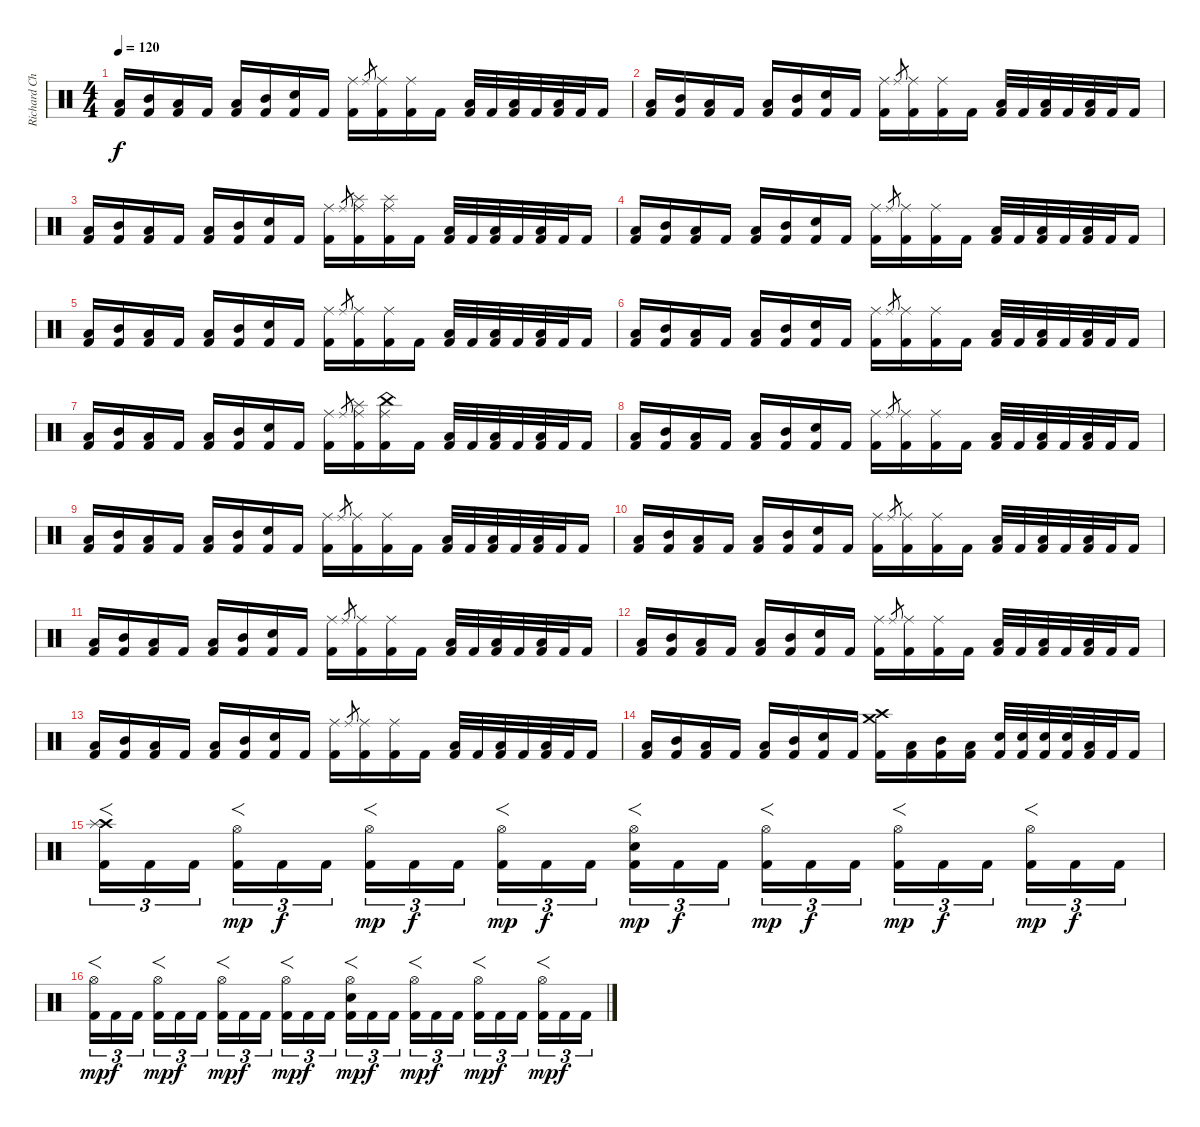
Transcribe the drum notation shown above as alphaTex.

\track ("Richard Christy" "Richard Ch") {instrument percussion}
\staff {score}
\articulation defaults
\ts (4 4)
\tempo 120
\clef neutral
\ks c
("Low Tom (hit)" "Kick (hit) 2").16{dy f} ("Mid Tom (hit)" "Kick (hit) 2").16 ("Low Tom (hit)" "Kick (hit) 2").16 "Kick (hit) 2".16 ("Low Tom (hit)" "Kick (hit) 2").16 ("Mid Tom (hit)" "Kick (hit) 2").16 ("Snare (hit) 2" "Kick (hit) 2").16 "Kick (hit) 2".16 ("Ride (middle)" "Kick (hit) 2").16 "Ride (middle)".8{gr} ("Ride (middle)" "Kick (hit) 2").16 ("Ride (middle)" "Kick (hit) 2").16 "Kick (hit) 2".16 ("Low Tom (hit)" "Kick (hit) 2").32 "Kick (hit) 2".32 ("Low Tom (hit)" "Kick (hit) 2").32 "Kick (hit) 2".32 ("Low Tom (hit)" "Kick (hit) 2").32 "Kick (hit) 2".32 "Kick (hit) 2".16 |
("Low Tom (hit)" "Kick (hit) 2").16 ("Mid Tom (hit)" "Kick (hit) 2").16 ("Low Tom (hit)" "Kick (hit) 2").16 "Kick (hit) 2".16 ("Low Tom (hit)" "Kick (hit) 2").16 ("Mid Tom (hit)" "Kick (hit) 2").16 ("Snare (hit) 2" "Kick (hit) 2").16 "Kick (hit) 2".16 ("Ride (middle)" "Kick (hit) 2").16 "Ride (middle)".8{gr} ("Ride (middle)" "Kick (hit) 2").16 ("Ride (middle)" "Kick (hit) 2").16 "Kick (hit) 2".16 ("Low Tom (hit)" "Kick (hit) 2").32 "Kick (hit) 2".32 ("Low Tom (hit)" "Kick (hit) 2").32 "Kick (hit) 2".32 ("Low Tom (hit)" "Kick (hit) 2").32 "Kick (hit) 2".32 "Kick (hit) 2".16 |
("Low Tom (hit)" "Kick (hit) 2").16 ("Mid Tom (hit)" "Kick (hit) 2").16 ("Low Tom (hit)" "Kick (hit) 2").16 "Kick (hit) 2".16 ("Low Tom (hit)" "Kick (hit) 2").16 ("Mid Tom (hit)" "Kick (hit) 2").16 ("Snare (hit) 2" "Kick (hit) 2").16 "Kick (hit) 2".16 ("Ride (middle)" "Kick (hit) 2").16 "Ride (middle)".8{gr} ("Ride (middle)" "Splash (hit)" "Kick (hit) 2").16 ("Ride (middle)" "Splash (hit)" "Kick (hit) 2").16 "Kick (hit) 2".16 ("Low Tom (hit)" "Kick (hit) 2").32 "Kick (hit) 2".32 ("Low Tom (hit)" "Kick (hit) 2").32 "Kick (hit) 2".32 ("Low Tom (hit)" "Kick (hit) 2").32 "Kick (hit) 2".32 "Kick (hit) 2".16 |
("Low Tom (hit)" "Kick (hit) 2").16 ("Mid Tom (hit)" "Kick (hit) 2").16 ("Low Tom (hit)" "Kick (hit) 2").16 "Kick (hit) 2".16 ("Low Tom (hit)" "Kick (hit) 2").16 ("Mid Tom (hit)" "Kick (hit) 2").16 ("Snare (hit) 2" "Kick (hit) 2").16 "Kick (hit) 2".16 ("Ride (middle)" "Kick (hit) 2").16 "Ride (middle)".8{gr} ("Ride (middle)" "Kick (hit) 2").16 ("Ride (middle)" "Kick (hit) 2").16 "Kick (hit) 2".16 ("Low Tom (hit)" "Kick (hit) 2").32 "Kick (hit) 2".32 ("Low Tom (hit)" "Kick (hit) 2").32 "Kick (hit) 2".32 ("Low Tom (hit)" "Kick (hit) 2").32 "Kick (hit) 2".32 "Kick (hit) 2".16 |
("Low Tom (hit)" "Kick (hit) 2").16 ("Mid Tom (hit)" "Kick (hit) 2").16 ("Low Tom (hit)" "Kick (hit) 2").16 "Kick (hit) 2".16 ("Low Tom (hit)" "Kick (hit) 2").16 ("Mid Tom (hit)" "Kick (hit) 2").16 ("Snare (hit) 2" "Kick (hit) 2").16 "Kick (hit) 2".16 ("Ride (middle)" "Kick (hit) 2").16 "Ride (middle)".8{gr} ("Ride (middle)" "Kick (hit) 2").16 ("Ride (middle)" "Kick (hit) 2").16 "Kick (hit) 2".16 ("Low Tom (hit)" "Kick (hit) 2").32 "Kick (hit) 2".32 ("Low Tom (hit)" "Kick (hit) 2").32 "Kick (hit) 2".32 ("Low Tom (hit)" "Kick (hit) 2").32 "Kick (hit) 2".32 "Kick (hit) 2".16 |
("Low Tom (hit)" "Kick (hit) 2").16 ("Mid Tom (hit)" "Kick (hit) 2").16 ("Low Tom (hit)" "Kick (hit) 2").16 "Kick (hit) 2".16 ("Low Tom (hit)" "Kick (hit) 2").16 ("Mid Tom (hit)" "Kick (hit) 2").16 ("Snare (hit) 2" "Kick (hit) 2").16 "Kick (hit) 2".16 ("Ride (middle)" "Kick (hit) 2").16 "Ride (middle)".8{gr} ("Ride (middle)" "Kick (hit) 2").16 ("Ride (middle)" "Kick (hit) 2").16 "Kick (hit) 2".16 ("Low Tom (hit)" "Kick (hit) 2").32 "Kick (hit) 2".32 ("Low Tom (hit)" "Kick (hit) 2").32 "Kick (hit) 2".32 ("Low Tom (hit)" "Kick (hit) 2").32 "Kick (hit) 2".32 "Kick (hit) 2".16 |
("Low Tom (hit)" "Kick (hit) 2").16 ("Mid Tom (hit)" "Kick (hit) 2").16 ("Low Tom (hit)" "Kick (hit) 2").16 "Kick (hit) 2".16 ("Low Tom (hit)" "Kick (hit) 2").16 ("Mid Tom (hit)" "Kick (hit) 2").16 ("Snare (hit) 2" "Kick (hit) 2").16 "Kick (hit) 2".16 ("Ride (middle)" "Kick (hit) 2").16 "Ride (middle)".8{gr} ("Ride (middle)" "Splash (hit)" "Kick (hit) 2").16 ("Ride (middle)" "China (hit)" "Kick (hit) 2").16 "Kick (hit) 2".16 ("Low Tom (hit)" "Kick (hit) 2").32 "Kick (hit) 2".32 ("Low Tom (hit)" "Kick (hit) 2").32 "Kick (hit) 2".32 ("Low Tom (hit)" "Kick (hit) 2").32 "Kick (hit) 2".32 "Kick (hit) 2".16 |
("Low Tom (hit)" "Kick (hit) 2").16 ("Mid Tom (hit)" "Kick (hit) 2").16 ("Low Tom (hit)" "Kick (hit) 2").16 "Kick (hit) 2".16 ("Low Tom (hit)" "Kick (hit) 2").16 ("Mid Tom (hit)" "Kick (hit) 2").16 ("Snare (hit) 2" "Kick (hit) 2").16 "Kick (hit) 2".16 ("Ride (middle)" "Kick (hit) 2").16 "Ride (middle)".8{gr} ("Ride (middle)" "Kick (hit) 2").16 ("Ride (middle)" "Kick (hit) 2").16 "Kick (hit) 2".16 ("Low Tom (hit)" "Kick (hit) 2").32 "Kick (hit) 2".32 ("Low Tom (hit)" "Kick (hit) 2").32 "Kick (hit) 2".32 ("Low Tom (hit)" "Kick (hit) 2").32 "Kick (hit) 2".32 "Kick (hit) 2".16 |
("Low Tom (hit)" "Kick (hit) 2").16 ("Mid Tom (hit)" "Kick (hit) 2").16 ("Low Tom (hit)" "Kick (hit) 2").16 "Kick (hit) 2".16 ("Low Tom (hit)" "Kick (hit) 2").16 ("Mid Tom (hit)" "Kick (hit) 2").16 ("Snare (hit) 2" "Kick (hit) 2").16 "Kick (hit) 2".16 ("Ride (middle)" "Kick (hit) 2").16 "Ride (middle)".8{gr} ("Ride (middle)" "Kick (hit) 2").16 ("Ride (middle)" "Kick (hit) 2").16 "Kick (hit) 2".16 ("Low Tom (hit)" "Kick (hit) 2").32 "Kick (hit) 2".32 ("Low Tom (hit)" "Kick (hit) 2").32 "Kick (hit) 2".32 ("Low Tom (hit)" "Kick (hit) 2").32 "Kick (hit) 2".32 "Kick (hit) 2".16 |
("Low Tom (hit)" "Kick (hit) 2").16 ("Mid Tom (hit)" "Kick (hit) 2").16 ("Low Tom (hit)" "Kick (hit) 2").16 "Kick (hit) 2".16 ("Low Tom (hit)" "Kick (hit) 2").16 ("Mid Tom (hit)" "Kick (hit) 2").16 ("Snare (hit) 2" "Kick (hit) 2").16 "Kick (hit) 2".16 ("Ride (middle)" "Kick (hit) 2").16 "Ride (middle)".8{gr} ("Ride (middle)" "Kick (hit) 2").16 ("Ride (middle)" "Kick (hit) 2").16 "Kick (hit) 2".16 ("Low Tom (hit)" "Kick (hit) 2").32 "Kick (hit) 2".32 ("Low Tom (hit)" "Kick (hit) 2").32 "Kick (hit) 2".32 ("Low Tom (hit)" "Kick (hit) 2").32 "Kick (hit) 2".32 "Kick (hit) 2".16 |
("Low Tom (hit)" "Kick (hit) 2").16 ("Mid Tom (hit)" "Kick (hit) 2").16 ("Low Tom (hit)" "Kick (hit) 2").16 "Kick (hit) 2".16 ("Low Tom (hit)" "Kick (hit) 2").16 ("Mid Tom (hit)" "Kick (hit) 2").16 ("Snare (hit) 2" "Kick (hit) 2").16 "Kick (hit) 2".16 ("Ride (middle)" "Kick (hit) 2").16 "Ride (middle)".8{gr} ("Ride (middle)" "Kick (hit) 2").16 ("Ride (middle)" "Kick (hit) 2").16 "Kick (hit) 2".16 ("Low Tom (hit)" "Kick (hit) 2").32 "Kick (hit) 2".32 ("Low Tom (hit)" "Kick (hit) 2").32 "Kick (hit) 2".32 ("Low Tom (hit)" "Kick (hit) 2").32 "Kick (hit) 2".32 "Kick (hit) 2".16 |
("Low Tom (hit)" "Kick (hit) 2").16 ("Mid Tom (hit)" "Kick (hit) 2").16 ("Low Tom (hit)" "Kick (hit) 2").16 "Kick (hit) 2".16 ("Low Tom (hit)" "Kick (hit) 2").16 ("Mid Tom (hit)" "Kick (hit) 2").16 ("Snare (hit) 2" "Kick (hit) 2").16 "Kick (hit) 2".16 ("Ride (middle)" "Kick (hit) 2").16 "Ride (middle)".8{gr} ("Ride (middle)" "Kick (hit) 2").16 ("Ride (middle)" "Kick (hit) 2").16 "Kick (hit) 2".16 ("Low Tom (hit)" "Kick (hit) 2").32 "Kick (hit) 2".32 ("Low Tom (hit)" "Kick (hit) 2").32 "Kick (hit) 2".32 ("Low Tom (hit)" "Kick (hit) 2").32 "Kick (hit) 2".32 "Kick (hit) 2".16 |
("Low Tom (hit)" "Kick (hit) 2").16 ("Mid Tom (hit)" "Kick (hit) 2").16 ("Low Tom (hit)" "Kick (hit) 2").16 "Kick (hit) 2".16 ("Low Tom (hit)" "Kick (hit) 2").16 ("Mid Tom (hit)" "Kick (hit) 2").16 ("Snare (hit) 2" "Kick (hit) 2").16 "Kick (hit) 2".16 ("Ride (middle)" "Kick (hit) 2").16 "Ride (middle)".8{gr} ("Ride (middle)" "Kick (hit) 2").16 ("Ride (middle)" "Kick (hit) 2").16 "Kick (hit) 2".16 ("Low Tom (hit)" "Kick (hit) 2").32 "Kick (hit) 2".32 ("Low Tom (hit)" "Kick (hit) 2").32 "Kick (hit) 2".32 ("Low Tom (hit)" "Kick (hit) 2").32 "Kick (hit) 2".32 "Kick (hit) 2".16 |
("Low Tom (hit)" "Kick (hit) 2").16 ("Mid Tom (hit)" "Kick (hit) 2").16 ("Low Tom (hit)" "Kick (hit) 2").16 "Kick (hit) 2".16 ("Low Tom (hit)" "Kick (hit) 2").16 ("Mid Tom (hit)" "Kick (hit) 2").16 ("Snare (hit) 2" "Kick (hit) 2").16 "Kick (hit) 2".16 ("Crash high (hit)" "Crash medium (hit)" "Kick (hit) 2").16 ("Low Tom (hit)" "Kick (hit) 2").16 ("Mid Tom (hit)" "Kick (hit) 2").16 ("Low Tom (hit)" "Kick (hit) 2").16 ("Electric Snare (hit)" "Kick (hit) 2").32 ("Electric Snare (hit)" "Kick (hit) 2").32 ("Snare (hit) 2" "Kick (hit) 2").32 ("Snare (hit) 2" "Kick (hit) 2").32 ("Low Tom (hit)" "Kick (hit) 2").32 "Kick (hit) 2".32 "Kick (hit) 2".16 |
("Crash high (hit)" "Splash (hit)" "Kick (hit) 2").16{f tu (3 2)} "Kick (hit) 2".16{tu (3 2)} "Kick (hit) 2".16{tu (3 2) beam splitsecondary} ("Hi-Hat (open)" "Kick (hit) 2").16{f tu (3 2) dy mp} "Kick (hit) 2".16{tu (3 2) dy f} "Kick (hit) 2".16{tu (3 2)} ("Hi-Hat (open)" "Kick (hit) 2").16{f tu (3 2) dy mp} "Kick (hit) 2".16{tu (3 2) dy f} "Kick (hit) 2".16{tu (3 2) beam splitsecondary} ("Hi-Hat (open)" "Kick (hit) 2").16{f tu (3 2) dy mp} "Kick (hit) 2".16{tu (3 2) dy f} "Kick (hit) 2".16{tu (3 2)} ("Hi-Hat (open)" "Snare (hit) 2" "Kick (hit) 2").16{f tu (3 2) dy mp} "Kick (hit) 2".16{tu (3 2) dy f} "Kick (hit) 2".16{tu (3 2) beam splitsecondary} ("Hi-Hat (open)" "Kick (hit) 2").16{f tu (3 2) dy mp} "Kick (hit) 2".16{tu (3 2) dy f} "Kick (hit) 2".16{tu (3 2)} ("Hi-Hat (open)" "Kick (hit) 2").16{f tu (3 2) dy mp} "Kick (hit) 2".16{tu (3 2) dy f} "Kick (hit) 2".16{tu (3 2) beam splitsecondary} ("Hi-Hat (open)" "Kick (hit) 2").16{f tu (3 2) dy mp} "Kick (hit) 2".16{tu (3 2) dy f} "Kick (hit) 2".16{tu (3 2)} |
("Hi-Hat (open)" "Kick (hit) 2").16{f tu (3 2) dy mp} "Kick (hit) 2".16{tu (3 2) dy f} "Kick (hit) 2".16{tu (3 2) beam splitsecondary} ("Hi-Hat (open)" "Kick (hit) 2").16{f tu (3 2) dy mp} "Kick (hit) 2".16{tu (3 2) dy f} "Kick (hit) 2".16{tu (3 2)} ("Hi-Hat (open)" "Kick (hit) 2").16{f tu (3 2) dy mp} "Kick (hit) 2".16{tu (3 2) dy f} "Kick (hit) 2".16{tu (3 2) beam splitsecondary} ("Hi-Hat (open)" "Kick (hit) 2").16{f tu (3 2) dy mp} "Kick (hit) 2".16{tu (3 2) dy f} "Kick (hit) 2".16{tu (3 2)} ("Hi-Hat (open)" "Snare (hit) 2" "Kick (hit) 2").16{f tu (3 2) dy mp} "Kick (hit) 2".16{tu (3 2) dy f} "Kick (hit) 2".16{tu (3 2) beam splitsecondary} ("Hi-Hat (open)" "Kick (hit) 2").16{f tu (3 2) dy mp} "Kick (hit) 2".16{tu (3 2) dy f} "Kick (hit) 2".16{tu (3 2)} ("Hi-Hat (open)" "Kick (hit) 2").16{f tu (3 2) dy mp} "Kick (hit) 2".16{tu (3 2) dy f} "Kick (hit) 2".16{tu (3 2) beam splitsecondary} ("Hi-Hat (open)" "Kick (hit) 2").16{f tu (3 2) dy mp} "Kick (hit) 2".16{tu (3 2) dy f} "Kick (hit) 2".16{tu (3 2)}
